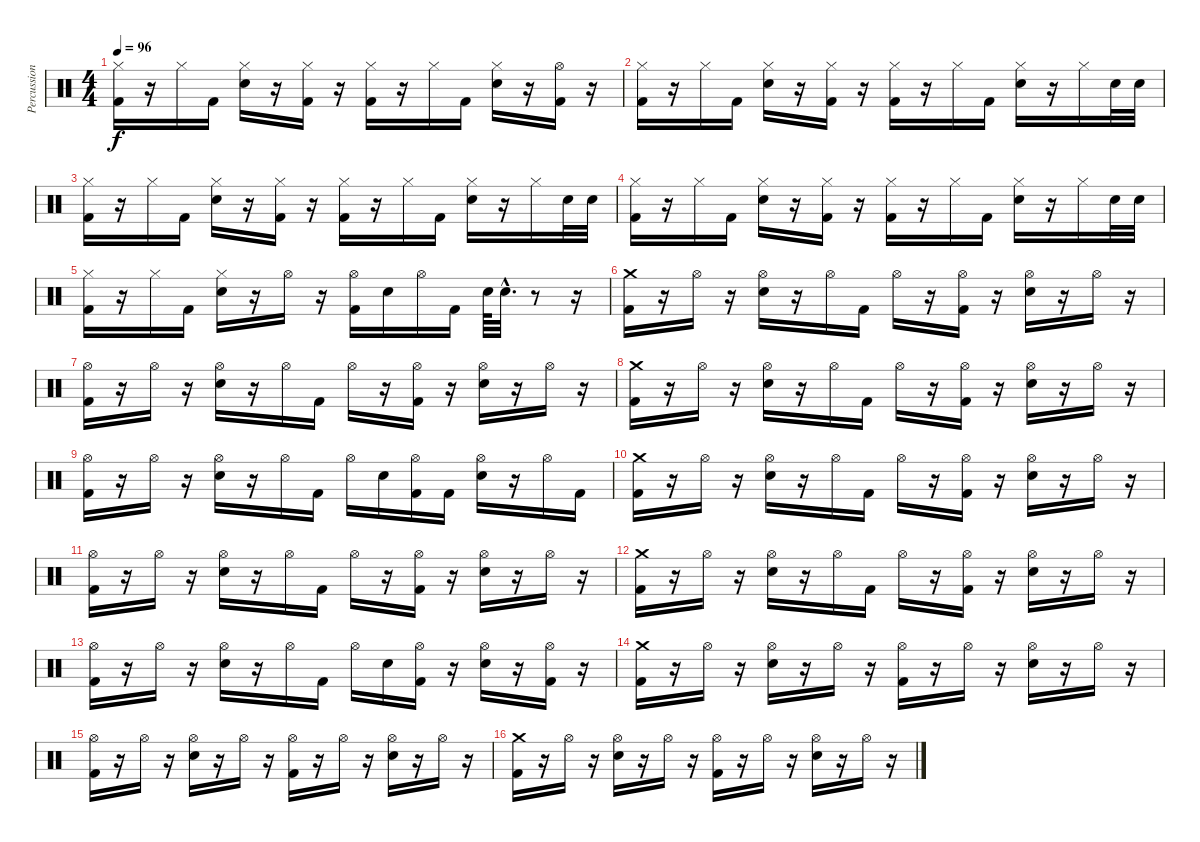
\track ("Percussion" "Percussion") {instrument percussion}
\staff {score}
\articulation defaults
\ts (4 4)
\tempo 96
\clef neutral
\ks c
("Hi-Hat (closed)" "Kick (hit) 2").16{dy f} r.16 "Hi-Hat (closed)".16 "Kick (hit) 2".16 ("Electric Snare (hit)" "Hi-Hat (closed)").16 r.16 ("Kick (hit) 2" "Hi-Hat (closed)").16 r.16 ("Kick (hit) 2" "Hi-Hat (closed)").16 r.16 "Hi-Hat (closed)".16 "Kick (hit) 2".16 ("Electric Snare (hit)" "Hi-Hat (closed)").16 r.16 ("Kick (hit) 2" "Hi-Hat (open)").16 r.16 |
("Kick (hit) 2" "Hi-Hat (closed)").16 r.16 "Hi-Hat (closed)".16 "Kick (hit) 2".16 ("Electric Snare (hit)" "Hi-Hat (closed)").16 r.16 ("Kick (hit) 2" "Hi-Hat (closed)").16 r.16 ("Kick (hit) 2" "Hi-Hat (closed)").16 r.16 "Hi-Hat (closed)".16 "Kick (hit) 2".16 ("Electric Snare (hit)" "Hi-Hat (closed)").16 r.16 "Hi-Hat (closed)".16 "Electric Snare (hit)".32 "Electric Snare (hit)".32 |
("Kick (hit) 2" "Hi-Hat (closed)").16 r.16 "Hi-Hat (closed)".16 "Kick (hit) 2".16 ("Electric Snare (hit)" "Hi-Hat (closed)").16 r.16 ("Kick (hit) 2" "Hi-Hat (closed)").16 r.16 ("Kick (hit) 2" "Hi-Hat (closed)").16 r.16 "Hi-Hat (closed)".16 "Kick (hit) 2".16 ("Electric Snare (hit)" "Hi-Hat (closed)").16 r.16 "Hi-Hat (closed)".16 "Electric Snare (hit)".32 "Electric Snare (hit)".32 |
("Kick (hit) 2" "Hi-Hat (closed)").16 r.16 "Hi-Hat (closed)".16 "Kick (hit) 2".16 ("Electric Snare (hit)" "Hi-Hat (closed)").16 r.16 ("Kick (hit) 2" "Hi-Hat (closed)").16 r.16 ("Kick (hit) 2" "Hi-Hat (closed)").16 r.16 "Hi-Hat (closed)".16 "Kick (hit) 2".16 ("Electric Snare (hit)" "Hi-Hat (closed)").16 r.16 "Hi-Hat (closed)".16 "Electric Snare (hit)".32 "Electric Snare (hit)".32 |
("Hi-Hat (closed)" "Kick (hit) 2").16 r.16 "Hi-Hat (closed)".16 "Kick (hit) 2".16 ("Electric Snare (hit)" "Hi-Hat (closed)").16 r.16 "Hi-Hat (open)".16 r.16 ("Kick (hit) 2" "Hi-Hat (open)").16 "Electric Snare (hit)".16 "Hi-Hat (open)".16 "Kick (hit) 2".16 "Electric Snare (hit)".64 "Electric Snare (hit)"{hac}.32{d} r.8 r.16 |
("Kick (hit) 2" "Crash medium (hit)").16 r.16 "Hi-Hat (open)".16 r.16 ("Electric Snare (hit)" "Hi-Hat (open)").16 r.16 "Hi-Hat (open)".16 "Kick (hit) 2".16 "Hi-Hat (open)".16 r.16 ("Hi-Hat (open)" "Kick (hit) 2").16 r.16 ("Hi-Hat (open)" "Electric Snare (hit)").16 r.16 "Hi-Hat (open)".16 r.16 |
("Hi-Hat (open)" "Kick (hit) 2").16 r.16 "Hi-Hat (open)".16 r.16 ("Hi-Hat (open)" "Electric Snare (hit)").16 r.16 "Hi-Hat (open)".16 "Kick (hit) 2".16 "Hi-Hat (open)".16 r.16 ("Hi-Hat (open)" "Kick (hit) 2").16 r.16 ("Hi-Hat (open)" "Electric Snare (hit)").16 r.16 "Hi-Hat (open)".16 r.16 |
("Kick (hit) 2" "Crash medium (hit)").16 r.16 "Hi-Hat (open)".16 r.16 ("Electric Snare (hit)" "Hi-Hat (open)").16 r.16 "Hi-Hat (open)".16 "Kick (hit) 2".16 "Hi-Hat (open)".16 r.16 ("Hi-Hat (open)" "Kick (hit) 2").16 r.16 ("Hi-Hat (open)" "Electric Snare (hit)").16 r.16 "Hi-Hat (open)".16 r.16 |
("Hi-Hat (open)" "Kick (hit) 2").16 r.16 "Hi-Hat (open)".16 r.16 ("Hi-Hat (open)" "Electric Snare (hit)").16 r.16 "Hi-Hat (open)".16 "Kick (hit) 2".16 "Hi-Hat (open)".16 "Electric Snare (hit)".16 ("Hi-Hat (open)" "Kick (hit) 2").16 "Kick (hit) 2".16 ("Hi-Hat (open)" "Electric Snare (hit)").16 r.16 "Hi-Hat (open)".16 "Kick (hit) 2".16 |
("Kick (hit) 2" "Crash medium (hit)").16 r.16 "Hi-Hat (open)".16 r.16 ("Electric Snare (hit)" "Hi-Hat (open)").16 r.16 "Hi-Hat (open)".16 "Kick (hit) 2".16 "Hi-Hat (open)".16 r.16 ("Hi-Hat (open)" "Kick (hit) 2").16 r.16 ("Hi-Hat (open)" "Electric Snare (hit)").16 r.16 "Hi-Hat (open)".16 r.16 |
("Hi-Hat (open)" "Kick (hit) 2").16 r.16 "Hi-Hat (open)".16 r.16 ("Hi-Hat (open)" "Electric Snare (hit)").16 r.16 "Hi-Hat (open)".16 "Kick (hit) 2".16 "Hi-Hat (open)".16 r.16 ("Hi-Hat (open)" "Kick (hit) 2").16 r.16 ("Hi-Hat (open)" "Electric Snare (hit)").16 r.16 "Hi-Hat (open)".16 r.16 |
("Kick (hit) 2" "Crash medium (hit)").16 r.16 "Hi-Hat (open)".16 r.16 ("Electric Snare (hit)" "Hi-Hat (open)").16 r.16 "Hi-Hat (open)".16 "Kick (hit) 2".16 "Hi-Hat (open)".16 r.16 ("Kick (hit) 2" "Hi-Hat (open)").16 r.16 ("Hi-Hat (open)" "Electric Snare (hit)").16 r.16 "Hi-Hat (open)".16 r.16 |
("Hi-Hat (open)" "Kick (hit) 2").16 r.16 "Hi-Hat (open)".16 r.16 ("Hi-Hat (open)" "Electric Snare (hit)").16 r.16 "Hi-Hat (open)".16 "Kick (hit) 2".16 "Hi-Hat (open)".16 "Electric Snare (hit)".16 ("Hi-Hat (open)" "Kick (hit) 2").16 r.16 ("Hi-Hat (open)" "Electric Snare (hit)").16 r.16 ("Kick (hit) 2" "Hi-Hat (open)").16 r.16 |
("Kick (hit) 2" "Crash medium (hit)").16 r.16 "Hi-Hat (open)".16 r.16 ("Electric Snare (hit)" "Hi-Hat (open)").16 r.16 "Hi-Hat (open)".16 r.16 ("Kick (hit) 2" "Hi-Hat (open)").16 r.16 "Hi-Hat (open)".16 r.16 ("Hi-Hat (open)" "Electric Snare (hit)").16 r.16 "Hi-Hat (open)".16 r.16 |
("Hi-Hat (open)" "Kick (hit) 2").16 r.16 "Hi-Hat (open)".16 r.16 ("Hi-Hat (open)" "Electric Snare (hit)").16 r.16 "Hi-Hat (open)".16 r.16 ("Kick (hit) 2" "Hi-Hat (open)").16 r.16 "Hi-Hat (open)".16 r.16 ("Hi-Hat (open)" "Electric Snare (hit)").16 r.16 "Hi-Hat (open)".16 r.16 |
("Kick (hit) 2" "Crash medium (hit)").16 r.16 "Hi-Hat (open)".16 r.16 ("Electric Snare (hit)" "Hi-Hat (open)").16 r.16 "Hi-Hat (open)".16 r.16 ("Kick (hit) 2" "Hi-Hat (open)").16 r.16 "Hi-Hat (open)".16 r.16 ("Hi-Hat (open)" "Electric Snare (hit)").16 r.16 "Hi-Hat (open)".16 r.16
